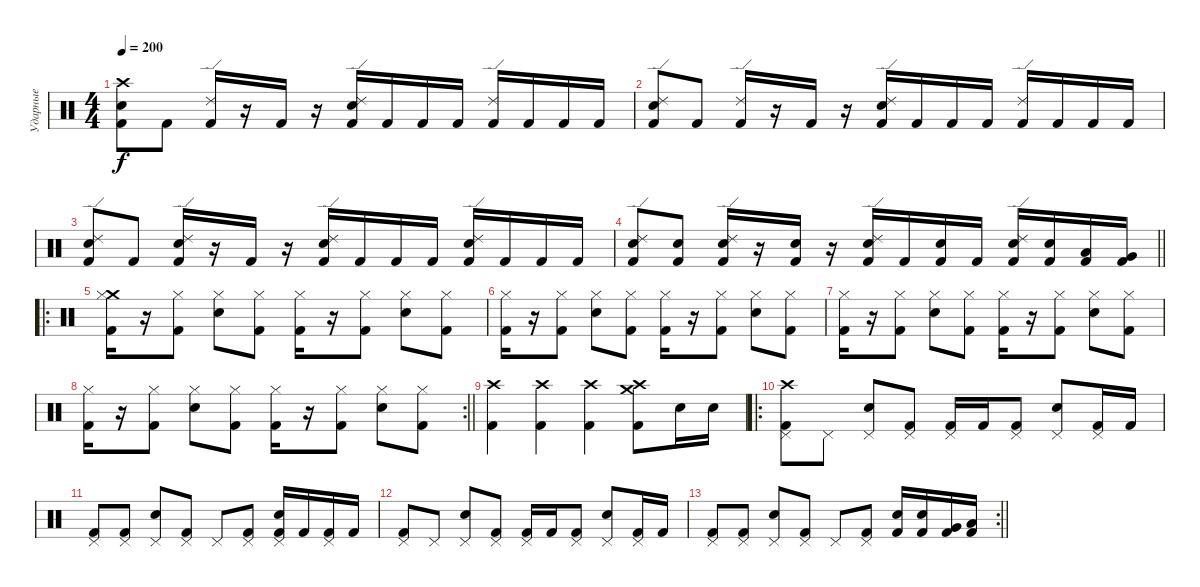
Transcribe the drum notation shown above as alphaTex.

\track ("Ударные" "Ударные") {instrument percussion}
\staff {score}
\articulation defaults
\ts (4 4)
\tempo 200
\clef neutral
\ks c
("Crash high (hit)" "Snare (hit) 2" "Kick (hit) 2").8{dy f} "Kick (hit) 2".8 ("Ride (edge) 2" "Kick (hit) 2").16 r.16 "Kick (hit) 2".16 r.16 ("Snare (hit) 2" "Ride (edge) 2" "Kick (hit) 2").16 "Kick (hit) 2".16 "Kick (hit) 2".16 "Kick (hit) 2".16 ("Ride (edge) 2" "Kick (hit) 2").16 "Kick (hit) 2".16 "Kick (hit) 2".16 "Kick (hit) 2".16 |
("Snare (hit) 2" "Ride (edge) 2" "Kick (hit) 2").8 "Kick (hit) 2".8 ("Ride (edge) 2" "Kick (hit) 2").16 r.16 "Kick (hit) 2".16 r.16 ("Snare (hit) 2" "Ride (edge) 2" "Kick (hit) 2").16 "Kick (hit) 2".16 "Kick (hit) 2".16 "Kick (hit) 2".16 ("Ride (edge) 2" "Kick (hit) 2").16 "Kick (hit) 2".16 "Kick (hit) 2".16 "Kick (hit) 2".16 |
("Snare (hit) 2" "Ride (edge) 2" "Kick (hit) 2").8 "Kick (hit) 2".8 ("Snare (hit) 2" "Ride (edge) 2" "Kick (hit) 2").16 r.16 "Kick (hit) 2".16 r.16 ("Snare (hit) 2" "Ride (edge) 2" "Kick (hit) 2").16 "Kick (hit) 2".16 "Kick (hit) 2".16 "Kick (hit) 2".16 ("Snare (hit) 2" "Ride (edge) 2" "Kick (hit) 2").16 "Kick (hit) 2".16 "Kick (hit) 2".16 "Kick (hit) 2".16 |
\barLineRight lightlight
("Snare (hit) 2" "Ride (edge) 2" "Kick (hit) 2").8 ("Snare (hit) 2" "Kick (hit) 2").8 ("Snare (hit) 2" "Ride (edge) 2" "Kick (hit) 2").16 r.16 ("Snare (hit) 2" "Kick (hit) 2").16 r.16 ("Snare (hit) 2" "Ride (edge) 2" "Kick (hit) 2").16 "Kick (hit) 2".16 ("Snare (hit) 2" "Kick (hit) 2").16 "Kick (hit) 2".16 ("Snare (hit) 2" "Ride (edge) 2" "Kick (hit) 2").16 ("Snare (hit) 2" "Kick (hit) 2").16 ("Low Tom (hit)" "Kick (hit) 2").16 ("Very Low Tom (hit)" "Kick (hit) 2").16 |
\ro
("Crash medium (hit)" "Hi-Hat (closed)" "Kick (hit) 2").16 r.16 ("Hi-Hat (closed)" "Kick (hit) 2").8 ("Snare (hit) 2" "Hi-Hat (closed)").8 ("Hi-Hat (closed)" "Kick (hit) 2").8 ("Hi-Hat (closed)" "Kick (hit) 2").16 r.16 ("Hi-Hat (closed)" "Kick (hit) 2").8 ("Snare (hit) 2" "Hi-Hat (closed)").8 ("Hi-Hat (closed)" "Kick (hit) 2").8 |
("Hi-Hat (closed)" "Kick (hit) 2").16 r.16 ("Hi-Hat (closed)" "Kick (hit) 2").8 ("Snare (hit) 2" "Hi-Hat (closed)").8 ("Hi-Hat (closed)" "Kick (hit) 2").8 ("Hi-Hat (closed)" "Kick (hit) 2").16 r.16 ("Hi-Hat (closed)" "Kick (hit) 2").8 ("Snare (hit) 2" "Hi-Hat (closed)").8 ("Hi-Hat (closed)" "Kick (hit) 2").8 |
("Hi-Hat (closed)" "Kick (hit) 2").16 r.16 ("Hi-Hat (closed)" "Kick (hit) 2").8 ("Snare (hit) 2" "Hi-Hat (closed)").8 ("Hi-Hat (closed)" "Kick (hit) 2").8 ("Hi-Hat (closed)" "Kick (hit) 2").16 r.16 ("Hi-Hat (closed)" "Kick (hit) 2").8 ("Snare (hit) 2" "Hi-Hat (closed)").8 ("Hi-Hat (closed)" "Kick (hit) 2").8 |
\rc 2
\barLineRight lightlight
("Hi-Hat (closed)" "Kick (hit) 2").16 r.16 ("Hi-Hat (closed)" "Kick (hit) 2").8 ("Snare (hit) 2" "Hi-Hat (closed)").8 ("Hi-Hat (closed)" "Kick (hit) 2").8 ("Hi-Hat (closed)" "Kick (hit) 2").16 r.16 ("Hi-Hat (closed)" "Kick (hit) 2").8 ("Snare (hit) 2" "Hi-Hat (closed)").8 ("Hi-Hat (closed)" "Kick (hit) 2").8 |
("Crash high (hit)" "Kick (hit) 2").4 ("Crash high (hit)" "Kick (hit) 2").4 ("Crash high (hit)" "Kick (hit) 2").4 ("Crash medium (hit)" "Crash high (hit)" "Kick (hit) 2").8 "Snare (hit) 2".16 "Snare (hit) 2".16 |
\ro
("Crash high (hit)" "Pedal Hi-Hat (hit)" "Kick (hit) 2").8 "Pedal Hi-Hat (hit)".8 ("Snare (hit) 2" "Pedal Hi-Hat (hit)").8 ("Pedal Hi-Hat (hit)" "Kick (hit) 2").8 ("Pedal Hi-Hat (hit)" "Kick (hit) 2").16 "Kick (hit) 2".16 ("Pedal Hi-Hat (hit)" "Kick (hit) 2").8 ("Snare (hit) 2" "Pedal Hi-Hat (hit)").8 ("Pedal Hi-Hat (hit)" "Kick (hit) 2").16 "Kick (hit) 2".16 |
("Pedal Hi-Hat (hit)" "Kick (hit) 2").8 ("Pedal Hi-Hat (hit)" "Kick (hit) 2").8 ("Snare (hit) 2" "Pedal Hi-Hat (hit)").8 ("Pedal Hi-Hat (hit)" "Kick (hit) 2").8 "Pedal Hi-Hat (hit)".8 ("Pedal Hi-Hat (hit)" "Kick (hit) 2").8 ("Snare (hit) 2" "Pedal Hi-Hat (hit)" "Kick (hit) 2").16 "Kick (hit) 2".16 ("Pedal Hi-Hat (hit)" "Kick (hit) 2").16 "Kick (hit) 2".16 |
("Pedal Hi-Hat (hit)" "Kick (hit) 2").8 "Pedal Hi-Hat (hit)".8 ("Snare (hit) 2" "Pedal Hi-Hat (hit)").8 ("Pedal Hi-Hat (hit)" "Kick (hit) 2").8 ("Pedal Hi-Hat (hit)" "Kick (hit) 2").16 "Kick (hit) 2".16 ("Pedal Hi-Hat (hit)" "Kick (hit) 2").8 ("Snare (hit) 2" "Pedal Hi-Hat (hit)").8 ("Pedal Hi-Hat (hit)" "Kick (hit) 2").16 "Kick (hit) 2".16 |
\rc 2
\barLineRight lightlight
("Pedal Hi-Hat (hit)" "Kick (hit) 2").8 ("Pedal Hi-Hat (hit)" "Kick (hit) 2").8 ("Snare (hit) 2" "Pedal Hi-Hat (hit)").8 ("Pedal Hi-Hat (hit)" "Kick (hit) 2").8 "Pedal Hi-Hat (hit)".8 ("Pedal Hi-Hat (hit)" "Kick (hit) 2").8 ("Snare (hit) 2" "Kick (hit) 2").16 ("Snare (hit) 2" "Kick (hit) 2").16 ("Very Low Tom (hit)" "Kick (hit) 2").16 ("Low Floor Tom (hit)" "Kick (hit) 2").16
